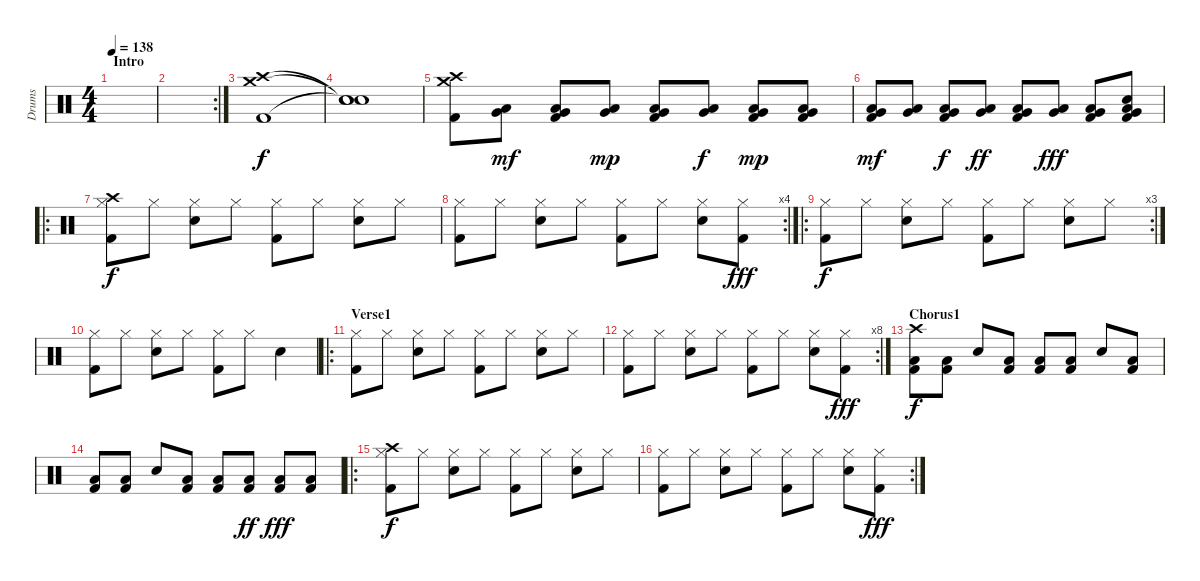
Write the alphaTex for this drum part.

\track ("Drums" "Drums") {instrument percussion}
\staff {score}
\articulation defaults
\ts (4 4)
\section ("" "Intro")
\tempo 138
\clef neutral
\ks c
|
\rc 2
|
("Crash medium (hit)" "Crash high (hit)" "Kick (hit) 2").1 |
("Snare (hit)"{t} "Snare (hit)"{t} "Snare (hit)"{t}).1{dy f} |
("Crash medium (hit)" "Crash high (hit)" "Kick (hit) 2").8 ("Very Low Tom (hit)" "Low Floor Tom (hit)").8{dy mf} ("Very Low Tom (hit)" "Low Floor Tom (hit)" "Kick (hit) 2").8 ("Very Low Tom (hit)" "Low Floor Tom (hit)").8{dy mp} ("Very Low Tom (hit)" "Low Floor Tom (hit)" "Kick (hit) 2").8 ("Very Low Tom (hit)" "Low Floor Tom (hit)").8{dy f} ("Very Low Tom (hit)" "Low Floor Tom (hit)" "Kick (hit) 2").8{dy mp} ("Very Low Tom (hit)" "Low Floor Tom (hit)" "Kick (hit) 2").8 |
("Very Low Tom (hit)" "Low Floor Tom (hit)" "Kick (hit) 2").8{dy mf} ("Very Low Tom (hit)" "Low Floor Tom (hit)").8 ("Very Low Tom (hit)" "Low Floor Tom (hit)" "Kick (hit) 2").8{dy f} ("Very Low Tom (hit)" "Low Floor Tom (hit)").8{dy ff} ("Very Low Tom (hit)" "Low Floor Tom (hit)" "Kick (hit) 2").8 ("Very Low Tom (hit)" "Low Floor Tom (hit)").8{dy fff} ("Very Low Tom (hit)" "Low Floor Tom (hit)" "Kick (hit) 2").8 ("Electric Snare (hit)" "Very Low Tom (hit)" "Low Floor Tom (hit)" "Kick (hit) 2").8 |
\ro
("Crash high (hit)" "Hi-Hat (closed)" "Kick (hit) 2").8{dy f} "Hi-Hat (closed)".8 ("Hi-Hat (closed)" "Electric Snare (hit)").8 "Hi-Hat (closed)".8 ("Hi-Hat (closed)" "Kick (hit) 2").8 "Hi-Hat (closed)".8 ("Hi-Hat (closed)" "Electric Snare (hit)").8 "Hi-Hat (closed)".8 |
\rc 4
("Hi-Hat (closed)" "Kick (hit) 2").8 "Hi-Hat (closed)".8 ("Hi-Hat (closed)" "Electric Snare (hit)").8 "Hi-Hat (closed)".8 ("Hi-Hat (closed)" "Kick (hit) 2").8 "Hi-Hat (closed)".8 ("Hi-Hat (closed)" "Electric Snare (hit)").8 ("Hi-Hat (closed)" "Kick (hit) 2").8{dy fff} |
\ro
\rc 3
("Hi-Hat (closed)" "Kick (hit) 2").8{dy f} "Hi-Hat (closed)".8 ("Hi-Hat (closed)" "Electric Snare (hit)").8 "Hi-Hat (closed)".8 ("Hi-Hat (closed)" "Kick (hit) 2").8 "Hi-Hat (closed)".8 ("Hi-Hat (closed)" "Electric Snare (hit)").8 "Hi-Hat (closed)".8 |
("Hi-Hat (closed)" "Kick (hit) 2").8 "Hi-Hat (closed)".8 ("Hi-Hat (closed)" "Electric Snare (hit)").8 "Hi-Hat (closed)".8 ("Hi-Hat (closed)" "Kick (hit) 2").8 "Hi-Hat (closed)".8 "Electric Snare (hit)".4 |
\ro
\section ("" "Verse1")
("Hi-Hat (closed)" "Kick (hit) 2").8 "Hi-Hat (closed)".8 ("Hi-Hat (closed)" "Electric Snare (hit)").8 "Hi-Hat (closed)".8 ("Hi-Hat (closed)" "Kick (hit) 2").8 "Hi-Hat (closed)".8 ("Hi-Hat (closed)" "Electric Snare (hit)").8 "Hi-Hat (closed)".8 |
\rc 8
("Hi-Hat (closed)" "Kick (hit) 2").8 "Hi-Hat (closed)".8 ("Hi-Hat (closed)" "Electric Snare (hit)").8 "Hi-Hat (closed)".8 ("Hi-Hat (closed)" "Kick (hit) 2").8 "Hi-Hat (closed)".8 ("Hi-Hat (closed)" "Electric Snare (hit)").8 ("Hi-Hat (closed)" "Kick (hit) 2").8{dy fff} |
\section ("" "Chorus1")
("Crash high (hit)" "Low Floor Tom (hit)" "Kick (hit) 2").8{dy f} ("Low Floor Tom (hit)" "Kick (hit) 2").8 "Electric Snare (hit)".8 ("Low Floor Tom (hit)" "Kick (hit) 2").8 ("Low Floor Tom (hit)" "Kick (hit) 2").8 ("Low Floor Tom (hit)" "Kick (hit) 2").8 "Electric Snare (hit)".8 ("Low Floor Tom (hit)" "Kick (hit) 2").8 |
("Low Floor Tom (hit)" "Kick (hit) 2").8 ("Low Floor Tom (hit)" "Kick (hit) 2").8 "Electric Snare (hit)".8 ("Low Floor Tom (hit)" "Kick (hit) 2").8 ("Low Floor Tom (hit)" "Kick (hit) 2").8 ("Low Floor Tom (hit)" "Kick (hit) 2").8{dy ff} ("Low Floor Tom (hit)" "Kick (hit) 2").8{dy fff} ("Low Floor Tom (hit)" "Kick (hit) 2").8 |
\ro
("Crash high (hit)" "Hi-Hat (closed)" "Kick (hit) 2").8{dy f} "Hi-Hat (closed)".8 ("Hi-Hat (closed)" "Electric Snare (hit)").8 "Hi-Hat (closed)".8 ("Hi-Hat (closed)" "Kick (hit) 2").8 "Hi-Hat (closed)".8 ("Hi-Hat (closed)" "Electric Snare (hit)").8 "Hi-Hat (closed)".8 |
\rc 2
("Hi-Hat (closed)" "Kick (hit) 2").8 "Hi-Hat (closed)".8 ("Hi-Hat (closed)" "Electric Snare (hit)").8 "Hi-Hat (closed)".8 ("Hi-Hat (closed)" "Kick (hit) 2").8 "Hi-Hat (closed)".8 ("Hi-Hat (closed)" "Electric Snare (hit)").8 ("Hi-Hat (closed)" "Kick (hit) 2").8{dy fff}
